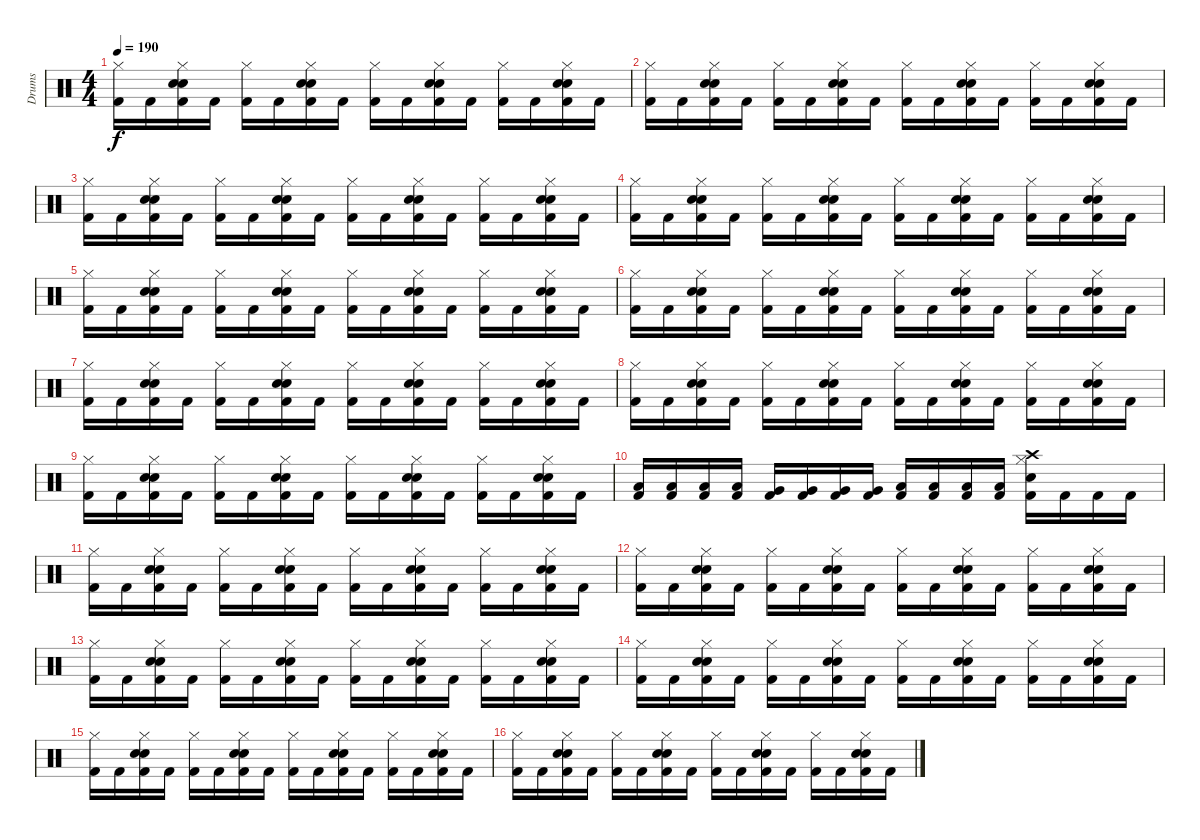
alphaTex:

\track ("Drums" "Drums") {instrument percussion}
\staff {score}
\articulation defaults
\ts (4 4)
\tempo 190
\clef neutral
\ks c
("Hi-Hat (closed)" "Kick (hit) 2").16{dy f} "Kick (hit) 2".16 ("Snare (hit) 2" "Hi-Hat (closed)" "Snare (hit) 2" "Kick (hit) 2").16 "Kick (hit) 2".16 ("Hi-Hat (closed)" "Kick (hit) 2").16 "Kick (hit) 2".16 ("Snare (hit) 2" "Hi-Hat (closed)" "Snare (hit) 2" "Kick (hit) 2").16 "Kick (hit) 2".16 ("Hi-Hat (closed)" "Kick (hit) 2").16 "Kick (hit) 2".16 ("Snare (hit) 2" "Hi-Hat (closed)" "Snare (hit) 2" "Kick (hit) 2").16 "Kick (hit) 2".16 ("Hi-Hat (closed)" "Kick (hit) 2").16 "Kick (hit) 2".16 ("Snare (hit) 2" "Hi-Hat (closed)" "Snare (hit) 2" "Kick (hit) 2").16 "Kick (hit) 2".16 |
("Hi-Hat (closed)" "Kick (hit) 2").16 "Kick (hit) 2".16 ("Snare (hit) 2" "Hi-Hat (closed)" "Snare (hit) 2" "Kick (hit) 2").16 "Kick (hit) 2".16 ("Hi-Hat (closed)" "Kick (hit) 2").16 "Kick (hit) 2".16 ("Snare (hit) 2" "Hi-Hat (closed)" "Snare (hit) 2" "Kick (hit) 2").16 "Kick (hit) 2".16 ("Hi-Hat (closed)" "Kick (hit) 2").16 "Kick (hit) 2".16 ("Snare (hit) 2" "Hi-Hat (closed)" "Snare (hit) 2" "Kick (hit) 2").16 "Kick (hit) 2".16 ("Hi-Hat (closed)" "Kick (hit) 2").16 "Kick (hit) 2".16 ("Snare (hit) 2" "Hi-Hat (closed)" "Snare (hit) 2" "Kick (hit) 2").16 "Kick (hit) 2".16 |
("Hi-Hat (closed)" "Kick (hit) 2").16 "Kick (hit) 2".16 ("Snare (hit) 2" "Hi-Hat (closed)" "Snare (hit) 2" "Kick (hit) 2").16 "Kick (hit) 2".16 ("Hi-Hat (closed)" "Kick (hit) 2").16 "Kick (hit) 2".16 ("Snare (hit) 2" "Hi-Hat (closed)" "Snare (hit) 2" "Kick (hit) 2").16 "Kick (hit) 2".16 ("Hi-Hat (closed)" "Kick (hit) 2").16 "Kick (hit) 2".16 ("Snare (hit) 2" "Hi-Hat (closed)" "Snare (hit) 2" "Kick (hit) 2").16 "Kick (hit) 2".16 ("Hi-Hat (closed)" "Kick (hit) 2").16 "Kick (hit) 2".16 ("Snare (hit) 2" "Hi-Hat (closed)" "Snare (hit) 2" "Kick (hit) 2").16 "Kick (hit) 2".16 |
("Hi-Hat (closed)" "Kick (hit) 2").16 "Kick (hit) 2".16 ("Snare (hit) 2" "Hi-Hat (closed)" "Snare (hit) 2" "Kick (hit) 2").16 "Kick (hit) 2".16 ("Hi-Hat (closed)" "Kick (hit) 2").16 "Kick (hit) 2".16 ("Snare (hit) 2" "Hi-Hat (closed)" "Snare (hit) 2" "Kick (hit) 2").16 "Kick (hit) 2".16 ("Hi-Hat (closed)" "Kick (hit) 2").16 "Kick (hit) 2".16 ("Snare (hit) 2" "Hi-Hat (closed)" "Snare (hit) 2" "Kick (hit) 2").16 "Kick (hit) 2".16 ("Hi-Hat (closed)" "Kick (hit) 2").16 "Kick (hit) 2".16 ("Snare (hit) 2" "Hi-Hat (closed)" "Snare (hit) 2" "Kick (hit) 2").16 "Kick (hit) 2".16 |
("Hi-Hat (closed)" "Kick (hit) 2").16 "Kick (hit) 2".16 ("Snare (hit) 2" "Hi-Hat (closed)" "Snare (hit) 2" "Kick (hit) 2").16 "Kick (hit) 2".16 ("Hi-Hat (closed)" "Kick (hit) 2").16 "Kick (hit) 2".16 ("Snare (hit) 2" "Hi-Hat (closed)" "Snare (hit) 2" "Kick (hit) 2").16 "Kick (hit) 2".16 ("Hi-Hat (closed)" "Kick (hit) 2").16 "Kick (hit) 2".16 ("Snare (hit) 2" "Hi-Hat (closed)" "Snare (hit) 2" "Kick (hit) 2").16 "Kick (hit) 2".16 ("Hi-Hat (closed)" "Kick (hit) 2").16 "Kick (hit) 2".16 ("Snare (hit) 2" "Hi-Hat (closed)" "Snare (hit) 2" "Kick (hit) 2").16 "Kick (hit) 2".16 |
("Hi-Hat (closed)" "Kick (hit) 2").16 "Kick (hit) 2".16 ("Snare (hit) 2" "Hi-Hat (closed)" "Snare (hit) 2" "Kick (hit) 2").16 "Kick (hit) 2".16 ("Hi-Hat (closed)" "Kick (hit) 2").16 "Kick (hit) 2".16 ("Snare (hit) 2" "Hi-Hat (closed)" "Snare (hit) 2" "Kick (hit) 2").16 "Kick (hit) 2".16 ("Hi-Hat (closed)" "Kick (hit) 2").16 "Kick (hit) 2".16 ("Snare (hit) 2" "Hi-Hat (closed)" "Snare (hit) 2" "Kick (hit) 2").16 "Kick (hit) 2".16 ("Hi-Hat (closed)" "Kick (hit) 2").16 "Kick (hit) 2".16 ("Snare (hit) 2" "Hi-Hat (closed)" "Snare (hit) 2" "Kick (hit) 2").16 "Kick (hit) 2".16 |
("Hi-Hat (closed)" "Kick (hit) 2").16 "Kick (hit) 2".16 ("Snare (hit) 2" "Hi-Hat (closed)" "Snare (hit) 2" "Kick (hit) 2").16 "Kick (hit) 2".16 ("Hi-Hat (closed)" "Kick (hit) 2").16 "Kick (hit) 2".16 ("Snare (hit) 2" "Hi-Hat (closed)" "Snare (hit) 2" "Kick (hit) 2").16 "Kick (hit) 2".16 ("Hi-Hat (closed)" "Kick (hit) 2").16 "Kick (hit) 2".16 ("Snare (hit) 2" "Hi-Hat (closed)" "Snare (hit) 2" "Kick (hit) 2").16 "Kick (hit) 2".16 ("Hi-Hat (closed)" "Kick (hit) 2").16 "Kick (hit) 2".16 ("Snare (hit) 2" "Hi-Hat (closed)" "Snare (hit) 2" "Kick (hit) 2").16 "Kick (hit) 2".16 |
("Hi-Hat (closed)" "Kick (hit) 2").16 "Kick (hit) 2".16 ("Snare (hit) 2" "Hi-Hat (closed)" "Snare (hit) 2" "Kick (hit) 2").16 "Kick (hit) 2".16 ("Hi-Hat (closed)" "Kick (hit) 2").16 "Kick (hit) 2".16 ("Snare (hit) 2" "Hi-Hat (closed)" "Snare (hit) 2" "Kick (hit) 2").16 "Kick (hit) 2".16 ("Hi-Hat (closed)" "Kick (hit) 2").16 "Kick (hit) 2".16 ("Snare (hit) 2" "Hi-Hat (closed)" "Snare (hit) 2" "Kick (hit) 2").16 "Kick (hit) 2".16 ("Hi-Hat (closed)" "Kick (hit) 2").16 "Kick (hit) 2".16 ("Snare (hit) 2" "Hi-Hat (closed)" "Snare (hit) 2" "Kick (hit) 2").16 "Kick (hit) 2".16 |
("Hi-Hat (closed)" "Kick (hit) 2").16 "Kick (hit) 2".16 ("Snare (hit) 2" "Hi-Hat (closed)" "Snare (hit) 2" "Kick (hit) 2").16 "Kick (hit) 2".16 ("Hi-Hat (closed)" "Kick (hit) 2").16 "Kick (hit) 2".16 ("Snare (hit) 2" "Hi-Hat (closed)" "Snare (hit) 2" "Kick (hit) 2").16 "Kick (hit) 2".16 ("Hi-Hat (closed)" "Kick (hit) 2").16 "Kick (hit) 2".16 ("Snare (hit) 2" "Hi-Hat (closed)" "Snare (hit) 2" "Kick (hit) 2").16 "Kick (hit) 2".16 ("Hi-Hat (closed)" "Kick (hit) 2").16 "Kick (hit) 2".16 ("Snare (hit) 2" "Hi-Hat (closed)" "Snare (hit) 2" "Kick (hit) 2").16 "Kick (hit) 2".16 |
("Low Tom (hit)" "Kick (hit) 2").16 ("Low Tom (hit)" "Kick (hit) 2").16 ("Low Tom (hit)" "Kick (hit) 2").16 ("Low Tom (hit)" "Kick (hit) 2").16 ("Very Low Tom (hit)" "Kick (hit) 2").16 ("Very Low Tom (hit)" "Kick (hit) 2").16 ("Very Low Tom (hit)" "Kick (hit) 2").16 ("Very Low Tom (hit)" "Kick (hit) 2").16 ("Low Floor Tom (hit)" "Kick (hit) 2").16 ("Low Floor Tom (hit)" "Kick (hit) 2").16 ("Low Floor Tom (hit)" "Kick (hit) 2").16 ("Low Floor Tom (hit)" "Kick (hit) 2").16 ("Crash high (hit)" "Hi-Hat (closed)" "Snare (hit) 2" "Kick (hit) 2").16 "Kick (hit) 2".16 "Kick (hit) 2".16 "Kick (hit) 2".16 |
("Hi-Hat (closed)" "Kick (hit) 2").16 "Kick (hit) 2".16 ("Snare (hit) 2" "Hi-Hat (closed)" "Snare (hit) 2" "Kick (hit) 2").16 "Kick (hit) 2".16 ("Hi-Hat (closed)" "Kick (hit) 2").16 "Kick (hit) 2".16 ("Snare (hit) 2" "Hi-Hat (closed)" "Snare (hit) 2" "Kick (hit) 2").16 "Kick (hit) 2".16 ("Hi-Hat (closed)" "Kick (hit) 2").16 "Kick (hit) 2".16 ("Snare (hit) 2" "Hi-Hat (closed)" "Snare (hit) 2" "Kick (hit) 2").16 "Kick (hit) 2".16 ("Hi-Hat (closed)" "Kick (hit) 2").16 "Kick (hit) 2".16 ("Snare (hit) 2" "Hi-Hat (closed)" "Snare (hit) 2" "Kick (hit) 2").16 "Kick (hit) 2".16 |
("Hi-Hat (closed)" "Kick (hit) 2").16 "Kick (hit) 2".16 ("Snare (hit) 2" "Hi-Hat (closed)" "Snare (hit) 2" "Kick (hit) 2").16 "Kick (hit) 2".16 ("Hi-Hat (closed)" "Kick (hit) 2").16 "Kick (hit) 2".16 ("Snare (hit) 2" "Hi-Hat (closed)" "Snare (hit) 2" "Kick (hit) 2").16 "Kick (hit) 2".16 ("Hi-Hat (closed)" "Kick (hit) 2").16 "Kick (hit) 2".16 ("Snare (hit) 2" "Hi-Hat (closed)" "Snare (hit) 2" "Kick (hit) 2").16 "Kick (hit) 2".16 ("Hi-Hat (closed)" "Kick (hit) 2").16 "Kick (hit) 2".16 ("Snare (hit) 2" "Hi-Hat (closed)" "Snare (hit) 2" "Kick (hit) 2").16 "Kick (hit) 2".16 |
("Hi-Hat (closed)" "Kick (hit) 2").16 "Kick (hit) 2".16 ("Snare (hit) 2" "Hi-Hat (closed)" "Snare (hit) 2" "Kick (hit) 2").16 "Kick (hit) 2".16 ("Hi-Hat (closed)" "Kick (hit) 2").16 "Kick (hit) 2".16 ("Snare (hit) 2" "Hi-Hat (closed)" "Snare (hit) 2" "Kick (hit) 2").16 "Kick (hit) 2".16 ("Hi-Hat (closed)" "Kick (hit) 2").16 "Kick (hit) 2".16 ("Snare (hit) 2" "Hi-Hat (closed)" "Snare (hit) 2" "Kick (hit) 2").16 "Kick (hit) 2".16 ("Hi-Hat (closed)" "Kick (hit) 2").16 "Kick (hit) 2".16 ("Snare (hit) 2" "Hi-Hat (closed)" "Snare (hit) 2" "Kick (hit) 2").16 "Kick (hit) 2".16 |
("Hi-Hat (closed)" "Kick (hit) 2").16 "Kick (hit) 2".16 ("Snare (hit) 2" "Hi-Hat (closed)" "Snare (hit) 2" "Kick (hit) 2").16 "Kick (hit) 2".16 ("Hi-Hat (closed)" "Kick (hit) 2").16 "Kick (hit) 2".16 ("Snare (hit) 2" "Hi-Hat (closed)" "Snare (hit) 2" "Kick (hit) 2").16 "Kick (hit) 2".16 ("Hi-Hat (closed)" "Kick (hit) 2").16 "Kick (hit) 2".16 ("Snare (hit) 2" "Hi-Hat (closed)" "Snare (hit) 2" "Kick (hit) 2").16 "Kick (hit) 2".16 ("Hi-Hat (closed)" "Kick (hit) 2").16 "Kick (hit) 2".16 ("Snare (hit) 2" "Hi-Hat (closed)" "Snare (hit) 2" "Kick (hit) 2").16 "Kick (hit) 2".16 |
("Hi-Hat (closed)" "Kick (hit) 2").16 "Kick (hit) 2".16 ("Snare (hit) 2" "Hi-Hat (closed)" "Snare (hit) 2" "Kick (hit) 2").16 "Kick (hit) 2".16 ("Hi-Hat (closed)" "Kick (hit) 2").16 "Kick (hit) 2".16 ("Snare (hit) 2" "Hi-Hat (closed)" "Snare (hit) 2" "Kick (hit) 2").16 "Kick (hit) 2".16 ("Hi-Hat (closed)" "Kick (hit) 2").16 "Kick (hit) 2".16 ("Snare (hit) 2" "Hi-Hat (closed)" "Snare (hit) 2" "Kick (hit) 2").16 "Kick (hit) 2".16 ("Hi-Hat (closed)" "Kick (hit) 2").16 "Kick (hit) 2".16 ("Snare (hit) 2" "Hi-Hat (closed)" "Snare (hit) 2" "Kick (hit) 2").16 "Kick (hit) 2".16 |
("Hi-Hat (closed)" "Kick (hit) 2").16 "Kick (hit) 2".16 ("Snare (hit) 2" "Hi-Hat (closed)" "Snare (hit) 2" "Kick (hit) 2").16 "Kick (hit) 2".16 ("Hi-Hat (closed)" "Kick (hit) 2").16 "Kick (hit) 2".16 ("Snare (hit) 2" "Hi-Hat (closed)" "Snare (hit) 2" "Kick (hit) 2").16 "Kick (hit) 2".16 ("Hi-Hat (closed)" "Kick (hit) 2").16 "Kick (hit) 2".16 ("Snare (hit) 2" "Hi-Hat (closed)" "Snare (hit) 2" "Kick (hit) 2").16 "Kick (hit) 2".16 ("Hi-Hat (closed)" "Kick (hit) 2").16 "Kick (hit) 2".16 ("Snare (hit) 2" "Hi-Hat (closed)" "Snare (hit) 2" "Kick (hit) 2").16 "Kick (hit) 2".16
